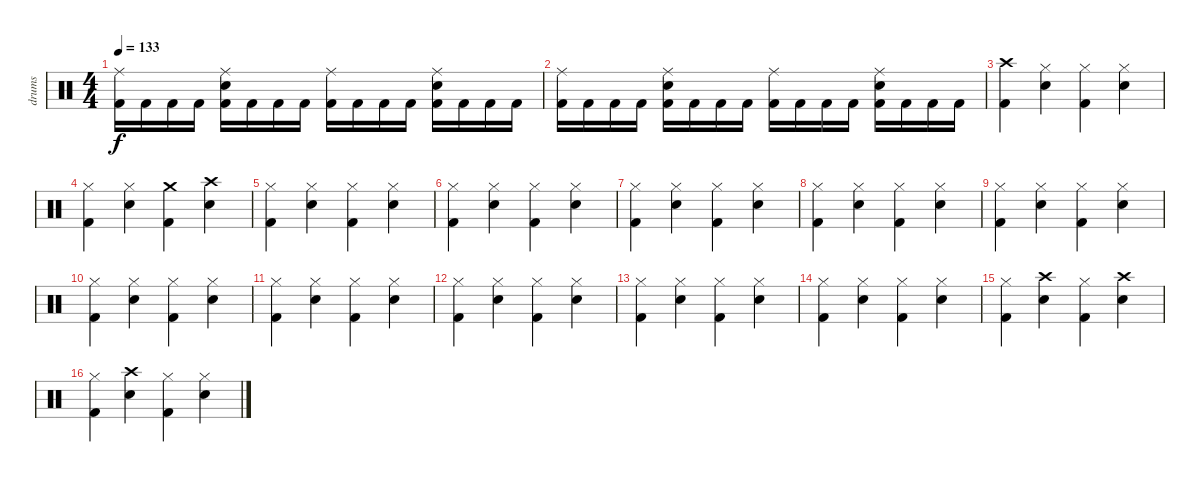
\track ("drums" "drums") {instrument percussion}
\staff {score}
\articulation defaults
\ts (4 4)
\tempo 133
\clef neutral
\ks c
("Ride (middle)" "Kick (hit) 2").16{dy f} "Kick (hit) 2".16 "Kick (hit) 2".16 "Kick (hit) 2".16 ("Ride (middle)" "Snare (hit) 2" "Kick (hit) 2").16 "Kick (hit) 2".16 "Kick (hit) 2".16 "Kick (hit) 2".16 ("Ride (middle)" "Kick (hit) 2").16 "Kick (hit) 2".16 "Kick (hit) 2".16 "Kick (hit) 2".16 ("Ride (middle)" "Snare (hit) 2" "Kick (hit) 2").16 "Kick (hit) 2".16 "Kick (hit) 2".16 "Kick (hit) 2".16 |
("Ride (middle)" "Kick (hit) 2").16 "Kick (hit) 2".16 "Kick (hit) 2".16 "Kick (hit) 2".16 ("Ride (middle)" "Snare (hit) 2" "Kick (hit) 2").16 "Kick (hit) 2".16 "Kick (hit) 2".16 "Kick (hit) 2".16 ("Ride (middle)" "Kick (hit) 2").16 "Kick (hit) 2".16 "Kick (hit) 2".16 "Kick (hit) 2".16 ("Ride (middle)" "Snare (hit) 2" "Kick (hit) 2").16 "Kick (hit) 2".16 "Kick (hit) 2".16 "Kick (hit) 2".16 |
("Crash high (hit)" "Kick (hit) 2").4 ("Hi-Hat (closed)" "Snare (hit) 2").4 ("Hi-Hat (closed)" "Kick (hit) 2").4 ("Hi-Hat (closed)" "Snare (hit) 2").4 |
("Hi-Hat (closed)" "Kick (hit) 2").4 ("Hi-Hat (closed)" "Snare (hit) 2").4 ("Crash medium (hit)" "Kick (hit) 2").4 ("Crash high (hit)" "Snare (hit) 2").4 |
("Hi-Hat (closed)" "Kick (hit) 2").4 ("Hi-Hat (closed)" "Snare (hit) 2").4 ("Hi-Hat (closed)" "Kick (hit) 2").4 ("Hi-Hat (closed)" "Snare (hit) 2").4 |
("Hi-Hat (closed)" "Kick (hit) 2").4 ("Hi-Hat (closed)" "Snare (hit) 2").4 ("Hi-Hat (closed)" "Kick (hit) 2").4 ("Hi-Hat (closed)" "Snare (hit) 2").4 |
("Hi-Hat (closed)" "Kick (hit) 2").4 ("Hi-Hat (closed)" "Snare (hit) 2").4 ("Hi-Hat (closed)" "Kick (hit) 2").4 ("Hi-Hat (closed)" "Snare (hit) 2").4 |
("Hi-Hat (closed)" "Kick (hit) 2").4 ("Hi-Hat (closed)" "Snare (hit) 2").4 ("Hi-Hat (closed)" "Kick (hit) 2").4 ("Hi-Hat (closed)" "Snare (hit) 2").4 |
("Hi-Hat (closed)" "Kick (hit) 2").4 ("Hi-Hat (closed)" "Snare (hit) 2").4 ("Hi-Hat (closed)" "Kick (hit) 2").4 ("Hi-Hat (closed)" "Snare (hit) 2").4 |
("Hi-Hat (closed)" "Kick (hit) 2").4 ("Hi-Hat (closed)" "Snare (hit) 2").4 ("Hi-Hat (closed)" "Kick (hit) 2").4 ("Hi-Hat (closed)" "Snare (hit) 2").4 |
("Hi-Hat (closed)" "Kick (hit) 2").4 ("Hi-Hat (closed)" "Snare (hit) 2").4 ("Hi-Hat (closed)" "Kick (hit) 2").4 ("Hi-Hat (closed)" "Snare (hit) 2").4 |
("Hi-Hat (closed)" "Kick (hit) 2").4 ("Hi-Hat (closed)" "Snare (hit) 2").4 ("Hi-Hat (closed)" "Kick (hit) 2").4 ("Hi-Hat (closed)" "Snare (hit) 2").4 |
("Hi-Hat (closed)" "Kick (hit) 2").4 ("Hi-Hat (closed)" "Snare (hit) 2").4 ("Hi-Hat (closed)" "Kick (hit) 2").4 ("Hi-Hat (closed)" "Snare (hit) 2").4 |
("Hi-Hat (closed)" "Kick (hit) 2").4 ("Hi-Hat (closed)" "Snare (hit) 2").4 ("Hi-Hat (closed)" "Kick (hit) 2").4 ("Hi-Hat (closed)" "Snare (hit) 2").4 |
("Hi-Hat (closed)" "Kick (hit) 2").4 ("Crash high (hit)" "Snare (hit) 2").4 ("Hi-Hat (closed)" "Kick (hit) 2").4 ("Crash high (hit)" "Snare (hit) 2").4 |
("Hi-Hat (closed)" "Kick (hit) 2").4 ("Crash high (hit)" "Snare (hit) 2").4 ("Hi-Hat (closed)" "Kick (hit) 2").4 ("Hi-Hat (closed)" "Snare (hit) 2").4
